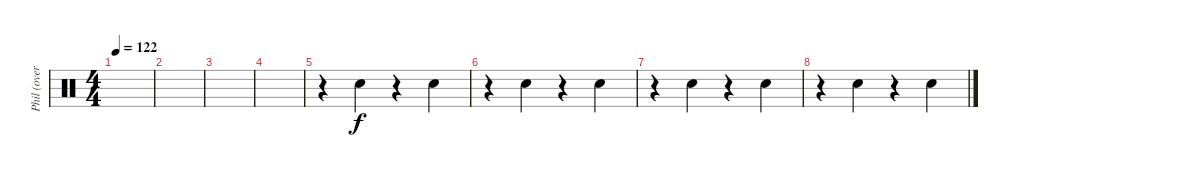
\track ("Phil (overdub)" "Phil (over") {instrument percussion}
\staff {score}
\articulation defaults
\ts (4 4)
\tempo 122
\clef neutral
\ks c
|
|
|
|
r.4 "Electric Snare (hit)".4{balance 16} r.4 "Electric Snare (hit)".4{balance 16} |
r.4 "Electric Snare (hit)".4{balance 16} r.4 "Electric Snare (hit)".4{balance 16} |
r.4 "Electric Snare (hit)".4{balance 16} r.4 "Electric Snare (hit)".4{balance 16} |
r.4 "Electric Snare (hit)".4{balance 16} r.4 "Electric Snare (hit)".4{balance 16}
